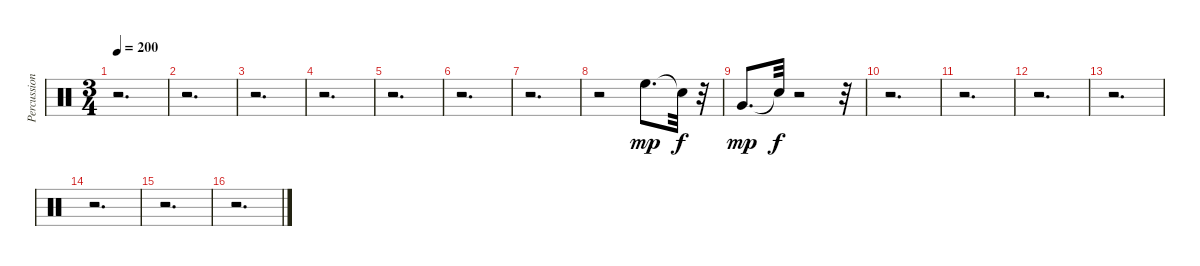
\track ("Percussion." "Percussion") {instrument percussion}
\staff {score}
\articulation defaults
\ts (3 4)
\tempo 200
\clef neutral
\ks c
r.2{d dy f} |
r.2{d} |
r.2{d} |
r.2{d} |
r.2{d} |
r.2{d} |
r.2{d} |
r.2 "High Floor Tom (hit)".8{d dy mp} "Snare (hit)"{t}.32{dy f} r.32 |
"Very Low Tom (hit)".8{d dy mp} "Snare (hit)"{t}.32{dy f} r.2 r.32 |
r.2{d} |
r.2{d} |
r.2{d} |
r.2{d} |
r.2{d} |
r.2{d} |
r.2{d}
